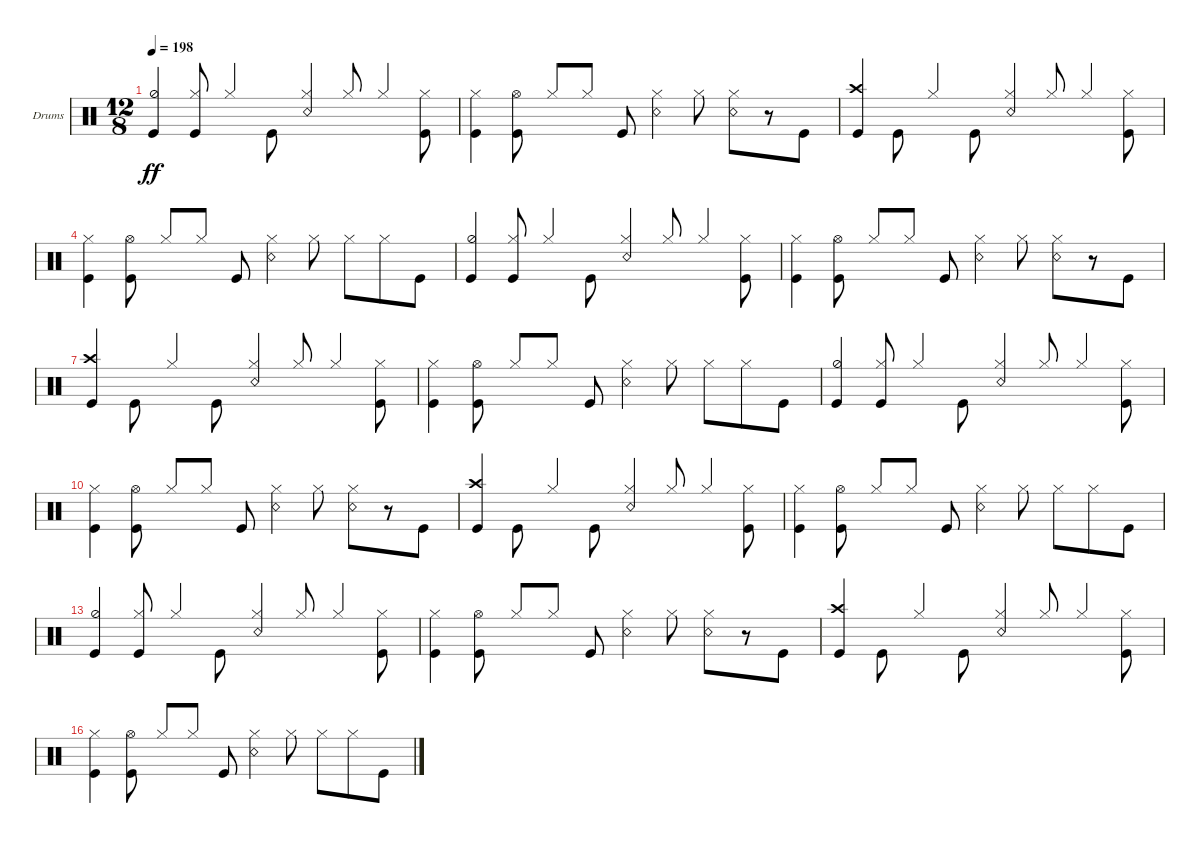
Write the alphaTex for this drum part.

\bracketExtendMode nobrackets
\firstSystemTrackNameOrientation horizontal
\otherSystemsTrackNameOrientation horizontal
\defaultBarNumberDisplay FirstOfSystem
\track ("Drumkit" "Drums") {instrument percussion}
\staff {score}
\articulation defaults
\ts (12 8)
\tempo 198
\clef neutral
\ks c
("Kick (hit)" "Hi-Hat (half)").4{dy ff beam invert} ("Kick (hit)" "Hi-Hat (closed)").8{beam invert} "Hi-Hat (closed)".4 "Kick (hit)".8{beam invert} ("Snare (rim shot)" "Hi-Hat (closed)").4 "Hi-Hat (closed)".8{beam invert} "Hi-Hat (closed)".4{beam invert} ("Kick (hit)" "Hi-Hat (closed)").8 |
("Kick (hit)" "Hi-Hat (closed)").4 ("Kick (hit)" "Hi-Hat (open)").8{beam split} "Hi-Hat (closed)".8 "Hi-Hat (closed)".8{beam invert beam split} "Kick (hit)".8 ("Snare (rim shot)" "Hi-Hat (closed)").4 "Hi-Hat (closed)".8{beam split} ("Hi-Hat (closed)" "Snare (rim shot)").8 r.8 "Kick (hit)".8 |
("Kick (hit)" "Crash high (hit)").4{beam invert} "Kick (hit)".8{beam invert} "Hi-Hat (closed)".4 "Kick (hit)".8{beam invert} ("Snare (rim shot)" "Hi-Hat (closed)").4 "Hi-Hat (closed)".8{beam invert} "Hi-Hat (closed)".4{beam invert} ("Kick (hit)" "Hi-Hat (closed)").8 |
("Kick (hit)" "Hi-Hat (closed)").4 ("Kick (hit)" "Hi-Hat (open)").8{beam split} "Hi-Hat (closed)".8 "Hi-Hat (closed)".8{beam invert beam split} "Kick (hit)".8 ("Snare (rim shot)" "Hi-Hat (closed)").4 "Hi-Hat (closed)".8{beam split} "Hi-Hat (closed)".8 "Hi-Hat (closed)".8 "Kick (hit)".8 |
("Kick (hit)" "Hi-Hat (half)").4{beam invert} ("Kick (hit)" "Hi-Hat (closed)").8{beam invert} "Hi-Hat (closed)".4 "Kick (hit)".8{beam invert} ("Snare (rim shot)" "Hi-Hat (closed)").4 "Hi-Hat (closed)".8{beam invert} "Hi-Hat (closed)".4{beam invert} ("Kick (hit)" "Hi-Hat (closed)").8 |
("Kick (hit)" "Hi-Hat (closed)").4 ("Kick (hit)" "Hi-Hat (open)").8{beam split} "Hi-Hat (closed)".8 "Hi-Hat (closed)".8{beam invert beam split} "Kick (hit)".8 ("Snare (rim shot)" "Hi-Hat (closed)").4 "Hi-Hat (closed)".8{beam split} ("Hi-Hat (closed)" "Snare (rim shot)").8 r.8 "Kick (hit)".8 |
("Kick (hit)" "Crash high (hit)").4{beam invert} "Kick (hit)".8{beam invert} "Hi-Hat (closed)".4 "Kick (hit)".8{beam invert} ("Snare (rim shot)" "Hi-Hat (closed)").4 "Hi-Hat (closed)".8{beam invert} "Hi-Hat (closed)".4{beam invert} ("Kick (hit)" "Hi-Hat (closed)").8 |
("Kick (hit)" "Hi-Hat (closed)").4 ("Kick (hit)" "Hi-Hat (open)").8{beam split} "Hi-Hat (closed)".8 "Hi-Hat (closed)".8{beam invert beam split} "Kick (hit)".8 ("Snare (rim shot)" "Hi-Hat (closed)").4 "Hi-Hat (closed)".8{beam split} "Hi-Hat (closed)".8 "Hi-Hat (closed)".8 "Kick (hit)".8 |
("Kick (hit)" "Hi-Hat (half)").4{beam invert} ("Kick (hit)" "Hi-Hat (closed)").8{beam invert} "Hi-Hat (closed)".4 "Kick (hit)".8{beam invert} ("Snare (rim shot)" "Hi-Hat (closed)").4 "Hi-Hat (closed)".8{beam invert} "Hi-Hat (closed)".4{beam invert} ("Kick (hit)" "Hi-Hat (closed)").8 |
("Kick (hit)" "Hi-Hat (closed)").4 ("Kick (hit)" "Hi-Hat (open)").8{beam split} "Hi-Hat (closed)".8 "Hi-Hat (closed)".8{beam invert beam split} "Kick (hit)".8 ("Snare (rim shot)" "Hi-Hat (closed)").4 "Hi-Hat (closed)".8{beam split} ("Hi-Hat (closed)" "Snare (rim shot)").8 r.8 "Kick (hit)".8 |
("Kick (hit)" "Crash high (hit)").4{beam invert} "Kick (hit)".8{beam invert} "Hi-Hat (closed)".4 "Kick (hit)".8{beam invert} ("Snare (rim shot)" "Hi-Hat (closed)").4 "Hi-Hat (closed)".8{beam invert} "Hi-Hat (closed)".4{beam invert} ("Kick (hit)" "Hi-Hat (closed)").8 |
("Kick (hit)" "Hi-Hat (closed)").4 ("Kick (hit)" "Hi-Hat (open)").8{beam split} "Hi-Hat (closed)".8 "Hi-Hat (closed)".8{beam invert beam split} "Kick (hit)".8 ("Snare (rim shot)" "Hi-Hat (closed)").4 "Hi-Hat (closed)".8{beam split} "Hi-Hat (closed)".8 "Hi-Hat (closed)".8 "Kick (hit)".8 |
("Kick (hit)" "Hi-Hat (half)").4{beam invert} ("Kick (hit)" "Hi-Hat (closed)").8{beam invert} "Hi-Hat (closed)".4 "Kick (hit)".8{beam invert} ("Snare (rim shot)" "Hi-Hat (closed)").4 "Hi-Hat (closed)".8{beam invert} "Hi-Hat (closed)".4{beam invert} ("Kick (hit)" "Hi-Hat (closed)").8 |
("Kick (hit)" "Hi-Hat (closed)").4 ("Kick (hit)" "Hi-Hat (open)").8{beam split} "Hi-Hat (closed)".8 "Hi-Hat (closed)".8{beam invert beam split} "Kick (hit)".8 ("Snare (rim shot)" "Hi-Hat (closed)").4 "Hi-Hat (closed)".8{beam split} ("Hi-Hat (closed)" "Snare (rim shot)").8 r.8 "Kick (hit)".8 |
("Kick (hit)" "Crash high (hit)").4{beam invert} "Kick (hit)".8{beam invert} "Hi-Hat (closed)".4 "Kick (hit)".8{beam invert} ("Snare (rim shot)" "Hi-Hat (closed)").4 "Hi-Hat (closed)".8{beam invert} "Hi-Hat (closed)".4{beam invert} ("Kick (hit)" "Hi-Hat (closed)").8 |
("Kick (hit)" "Hi-Hat (closed)").4 ("Kick (hit)" "Hi-Hat (open)").8{beam split} "Hi-Hat (closed)".8 "Hi-Hat (closed)".8{beam invert beam split} "Kick (hit)".8 ("Snare (rim shot)" "Hi-Hat (closed)").4 "Hi-Hat (closed)".8{beam split} "Hi-Hat (closed)".8 "Hi-Hat (closed)".8 "Kick (hit)".8
